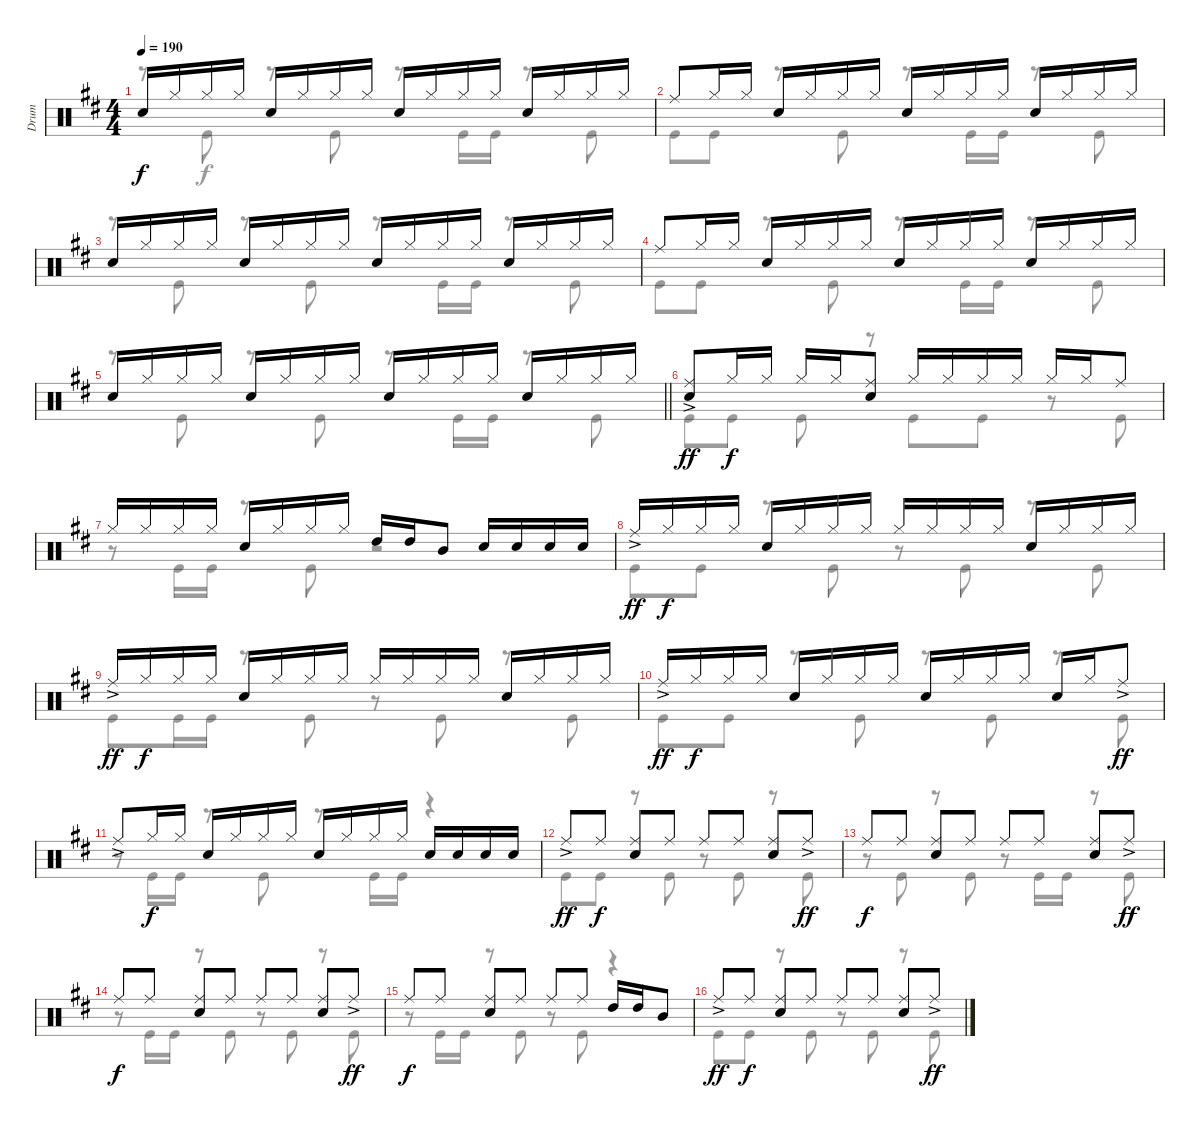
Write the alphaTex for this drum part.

\track ("Drum" "Drum") {instrument percussion}
\staff {score}
\articulation defaults
\voice
\ts (4 4)
\tempo 190
\clef neutral
\ks d "Snare (hit) 2".16{dy f} "Hi-Hat (closed)".16 "Hi-Hat (closed)".16 "Hi-Hat (closed)".16 "Snare (hit) 2".16 "Hi-Hat (closed)".16 "Hi-Hat (closed)".16 "Hi-Hat (closed)".16 "Snare (hit) 2".16 "Hi-Hat (closed)".16 "Hi-Hat (closed)".16 "Hi-Hat (closed)".16 "Snare (hit) 2".16 "Hi-Hat (closed)".16 "Hi-Hat (closed)".16 "Hi-Hat (closed)".16
|
"Ride (middle)".8 "Hi-Hat (closed)".16 "Hi-Hat (closed)".16 "Snare (hit) 2".16 "Hi-Hat (closed)".16 "Hi-Hat (closed)".16 "Hi-Hat (closed)".16 "Snare (hit) 2".16 "Hi-Hat (closed)".16 "Hi-Hat (closed)".16 "Hi-Hat (closed)".16 "Snare (hit) 2".16 "Hi-Hat (closed)".16 "Hi-Hat (closed)".16 "Hi-Hat (closed)".16 |
"Snare (hit) 2".16 "Hi-Hat (closed)".16 "Hi-Hat (closed)".16 "Hi-Hat (closed)".16 "Snare (hit) 2".16 "Hi-Hat (closed)".16 "Hi-Hat (closed)".16 "Hi-Hat (closed)".16 "Snare (hit) 2".16 "Hi-Hat (closed)".16 "Hi-Hat (closed)".16 "Hi-Hat (closed)".16 "Snare (hit) 2".16 "Hi-Hat (closed)".16 "Hi-Hat (closed)".16 "Hi-Hat (closed)".16 |
"Ride (middle)".8 "Hi-Hat (closed)".16 "Hi-Hat (closed)".16 "Snare (hit) 2".16 "Hi-Hat (closed)".16 "Hi-Hat (closed)".16 "Hi-Hat (closed)".16 "Snare (hit) 2".16 "Hi-Hat (closed)".16 "Hi-Hat (closed)".16 "Hi-Hat (closed)".16 "Snare (hit) 2".16 "Hi-Hat (closed)".16 "Hi-Hat (closed)".16 "Hi-Hat (closed)".16 |
\barLineRight lightlight "Snare (hit) 2".16 "Hi-Hat (closed)".16 "Hi-Hat (closed)".16 "Hi-Hat (closed)".16 "Snare (hit) 2".16 "Hi-Hat (closed)".16 "Hi-Hat (closed)".16 "Hi-Hat (closed)".16 "Snare (hit) 2".16 "Hi-Hat (closed)".16 "Hi-Hat (closed)".16 "Hi-Hat (closed)".16 "Snare (hit) 2".16 "Hi-Hat (closed)".16 "Hi-Hat (closed)".16 "Hi-Hat (closed)".16
|
("Ride (middle)"{ac} "Snare (hit) 2").8{dy ff} "Hi-Hat (closed)".16{dy f} "Hi-Hat (closed)".16 "Hi-Hat (closed)".16 "Hi-Hat (closed)".16 ("Ride (middle)" "Snare (hit) 2").8 "Hi-Hat (closed)".16 "Hi-Hat (closed)".16 "Hi-Hat (closed)".16 "Hi-Hat (closed)".16 "Hi-Hat (closed)".16 "Hi-Hat (closed)".16 "Ride (middle)".8 |
"Hi-Hat (closed)".16 "Hi-Hat (closed)".16 "Hi-Hat (closed)".16 "Hi-Hat (closed)".16 "Snare (hit) 2".16 "Hi-Hat (closed)".16 "Hi-Hat (closed)".16 "Hi-Hat (closed)".16 "High Tom (hit)".16 "High Tom (hit)".16 "Mid Tom (hit)".8 "Snare (hit) 2".16 "Snare (hit) 2".16 "Snare (hit) 2".16 "Snare (hit) 2".16 |
"Ride (middle)"{ac}.16{dy ff} "Hi-Hat (closed)".16{dy f} "Hi-Hat (closed)".16 "Hi-Hat (closed)".16 "Snare (hit) 2".16 "Hi-Hat (closed)".16 "Hi-Hat (closed)".16 "Hi-Hat (closed)".16 "Hi-Hat (closed)".16 "Hi-Hat (closed)".16 "Hi-Hat (closed)".16 "Hi-Hat (closed)".16 "Snare (hit) 2".16 "Hi-Hat (closed)".16 "Hi-Hat (closed)".16 "Hi-Hat (closed)".16 |
"Ride (middle)"{ac}.16{dy ff} "Hi-Hat (closed)".16{dy f} "Hi-Hat (closed)".16 "Hi-Hat (closed)".16 "Snare (hit) 2".16 "Hi-Hat (closed)".16 "Hi-Hat (closed)".16 "Hi-Hat (closed)".16 "Hi-Hat (closed)".16 "Hi-Hat (closed)".16 "Hi-Hat (closed)".16 "Hi-Hat (closed)".16 "Snare (hit) 2".16 "Hi-Hat (closed)".16 "Hi-Hat (closed)".16 "Hi-Hat (closed)".16 |
"Ride (middle)"{ac}.16{dy ff} "Hi-Hat (closed)".16{dy f} "Hi-Hat (closed)".16 "Hi-Hat (closed)".16 "Snare (hit) 2".16 "Hi-Hat (closed)".16 "Hi-Hat (closed)".16 "Hi-Hat (closed)".16 "Snare (hit) 2".16 "Hi-Hat (closed)".16 "Hi-Hat (closed)".16 "Hi-Hat (closed)".16 "Snare (hit) 2".16 "Hi-Hat (closed)".16 "Ride (middle)"{ac}.8{dy ff} |
"Ride (middle)"{ac}.8 "Hi-Hat (closed)".16{dy f} "Hi-Hat (closed)".16 "Snare (hit) 2".16 "Hi-Hat (closed)".16 "Hi-Hat (closed)".16 "Hi-Hat (closed)".16 "Snare (hit) 2".16 "Hi-Hat (closed)".16 "Hi-Hat (closed)".16 "Hi-Hat (closed)".16 "Snare (hit) 2".16 "Snare (hit) 2".16 "Snare (hit) 2".16 "Snare (hit) 2".16 |
"Ride (middle)"{ac}.8{dy ff} "Ride (middle)".8{dy f} ("Ride (middle)" "Snare (hit) 2").8 "Ride (middle)".8 "Ride (middle)".8 "Ride (middle)".8 ("Ride (middle)" "Snare (hit) 2").8 "Ride (middle)"{ac}.8{dy ff} |
"Ride (middle)".8{dy f} "Ride (middle)".8 ("Ride (middle)" "Snare (hit) 2").8 "Ride (middle)".8 "Ride (middle)".8 "Ride (middle)".8 ("Ride (middle)" "Snare (hit) 2").8 "Ride (middle)"{ac}.8{dy ff} |
"Ride (middle)".8{dy f} "Ride (middle)".8 ("Ride (middle)" "Snare (hit) 2").8 "Ride (middle)".8 "Ride (middle)".8 "Ride (middle)".8 ("Ride (middle)" "Snare (hit) 2").8 "Ride (middle)"{ac}.8{dy ff} |
"Ride (middle)".8{dy f} "Ride (middle)".8 ("Ride (middle)" "Snare (hit) 2").8 "Ride (middle)".8 "Ride (middle)".8 "Ride (middle)".8 "High Tom (hit)".16 "High Tom (hit)".16 "Mid Tom (hit)".8 |
"Ride (middle)"{ac}.8{dy ff} "Ride (middle)".8{dy f} ("Ride (middle)" "Snare (hit) 2").8 "Ride (middle)".8 "Ride (middle)".8 "Ride (middle)".8 ("Ride (middle)" "Snare (hit) 2").8 "Ride (middle)"{ac}.8{dy ff}
\voice
\clef neutral
\ottava regular
\simile none
\ks d
r.8{dy f} "Kick (hit)".8 r.8 "Kick (hit)".8 r.8 "Kick (hit)".16 "Kick (hit)".16 r.8 "Kick (hit)".8 |
"Kick (hit)".8 "Kick (hit)".8 r.8 "Kick (hit)".8 r.8 "Kick (hit)".16 "Kick (hit)".16 r.8 "Kick (hit)".8 |
r.8 "Kick (hit)".8 r.8 "Kick (hit)".8 r.8 "Kick (hit)".16 "Kick (hit)".16 r.8 "Kick (hit)".8 |
"Kick (hit)".8 "Kick (hit)".8 r.8 "Kick (hit)".8 r.8 "Kick (hit)".16 "Kick (hit)".16 r.8 "Kick (hit)".8 |
\barLineRight lightlight
r.8 "Kick (hit)".8 r.8 "Kick (hit)".8 r.8 "Kick (hit)".16 "Kick (hit)".16 r.8 "Kick (hit)".8 |
"Kick (hit)".8 "Kick (hit)".8 "Kick (hit)".8 r.8 "Kick (hit)".8 "Kick (hit)".8 r.8 "Kick (hit)".8 |
r.8 "Kick (hit)".16 "Kick (hit)".16 r.8 "Kick (hit)".8 r.2 |
"Kick (hit)".8 "Kick (hit)".8 r.8 "Kick (hit)".8 r.8 "Kick (hit)".8 r.8 "Kick (hit)".8 |
"Kick (hit)".8 "Kick (hit)".16 "Kick (hit)".16 r.8 "Kick (hit)".8 r.8 "Kick (hit)".8 r.8 "Kick (hit)".8 |
"Kick (hit)".8 "Kick (hit)".8 r.8 "Kick (hit)".8 r.8 "Kick (hit)".8 r.8 "Kick (hit)".8 |
r.8 "Kick (hit)".16 "Kick (hit)".16 r.8 "Kick (hit)".8 r.8 "Kick (hit)".16 "Kick (hit)".16 r.4 |
"Kick (hit)".8 "Kick (hit)".8 r.8 "Kick (hit)".8 r.8 "Kick (hit)".8 r.8 "Kick (hit)".8 |
r.8 "Kick (hit)".8 r.8 "Kick (hit)".8 r.8 "Kick (hit)".16 "Kick (hit)".16 r.8 "Kick (hit)".8 |
r.8 "Kick (hit)".16 "Kick (hit)".16 r.8 "Kick (hit)".8 r.8 "Kick (hit)".8 r.8 "Kick (hit)".8 |
r.8 "Kick (hit)".16 "Kick (hit)".16 r.8 "Kick (hit)".8 r.8 "Kick (hit)".8 r.4 |
"Kick (hit)".8 "Kick (hit)".8 r.8 "Kick (hit)".8 r.8 "Kick (hit)".8 r.8 "Kick (hit)".8
